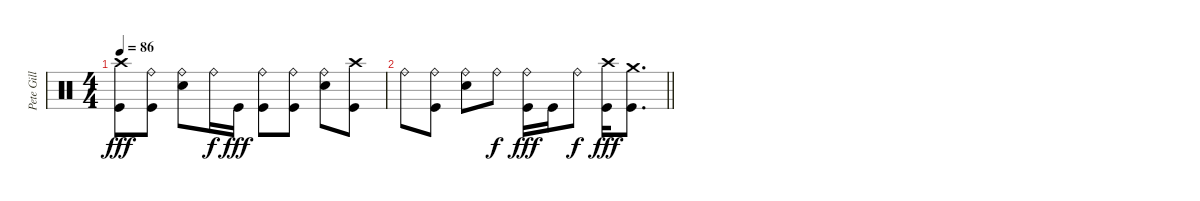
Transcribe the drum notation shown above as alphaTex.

\track ("Pete Gill" "Pete Gill") {instrument percussion}
\staff {score}
\articulation defaults
\ts (4 4)
\tempo 86
\clef neutral
\ks c
("Crash high (hit)" "Kick (hit)").8{dy fff volume 0} ("Ride (bell)" "Kick (hit)").8 ("Ride (bell)" "Electric Snare (hit)").8 "Ride (bell)".16{dy f} "Kick (hit)".16{dy fff} ("Ride (bell)" "Kick (hit)").8 ("Ride (bell)" "Kick (hit)").8 ("Ride (bell)" "Electric Snare (hit)").8 ("Crash high (hit)" "Kick (hit)").8 |
\barLineRight lightlight "Ride (bell)".8
("Ride (bell)" "Kick (hit)").8 ("Ride (bell)" "Electric Snare (hit)").8 "Ride (bell)".8{dy f} ("Ride (bell)" "Kick (hit)").16{dy fff} "Kick (hit)".16 "Ride (bell)".8{dy f} ("Crash high (hit)" "Kick (hit)").16{dy fff} ("Crash medium (hit)" "Kick (hit)").8{d}
